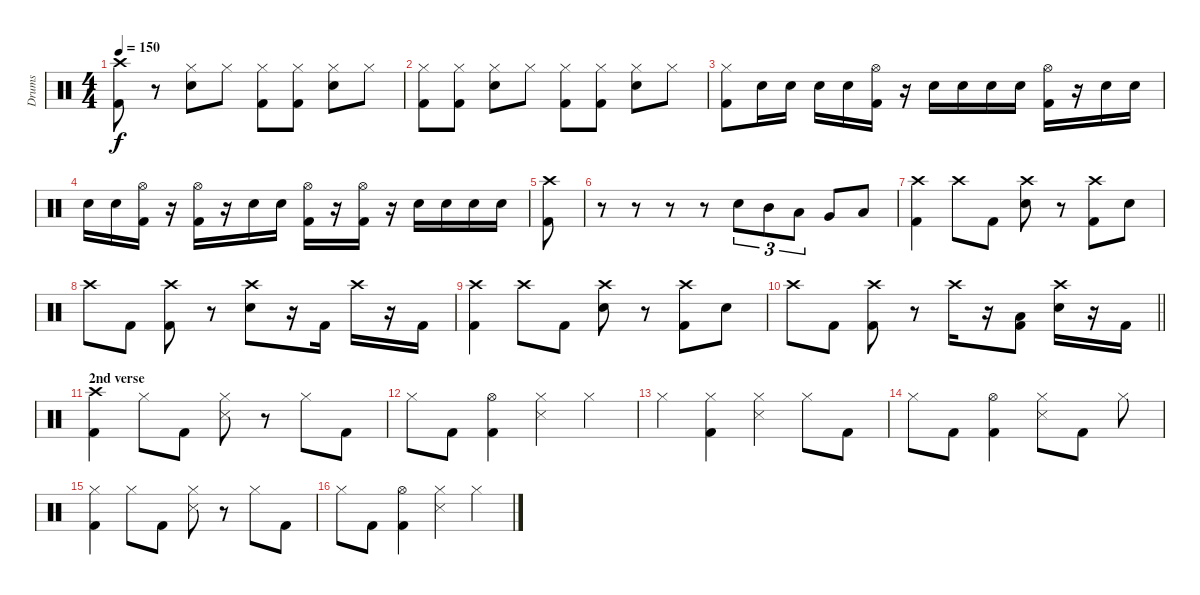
\track ("Drums" "Drums") {instrument percussion}
\staff {score}
\articulation defaults
\ts (4 4)
\tempo 150
\clef neutral
\ks c
("Crash high (hit)" "Kick (hit) 2").8{dy f} r.8 ("Hi-Hat (closed)" "Snare (hit) 2").8 "Hi-Hat (closed)".8 ("Hi-Hat (closed)" "Kick (hit) 2").8 ("Hi-Hat (closed)" "Kick (hit) 2").8 ("Hi-Hat (closed)" "Snare (hit) 2").8 "Hi-Hat (closed)".8 |
("Hi-Hat (closed)" "Kick (hit) 2").8 ("Hi-Hat (closed)" "Kick (hit) 2").8 ("Hi-Hat (closed)" "Snare (hit) 2").8 "Hi-Hat (closed)".8 ("Hi-Hat (closed)" "Kick (hit) 2").8 ("Hi-Hat (closed)" "Kick (hit) 2").8 ("Hi-Hat (closed)" "Snare (hit) 2").8 "Hi-Hat (closed)".8 |
("Hi-Hat (closed)" "Kick (hit) 2").8 "Snare (hit) 2".16 "Snare (hit) 2".16 "Snare (hit) 2".16 "Snare (hit) 2".16 ("Hi-Hat (open)" "Kick (hit) 2").16 r.16 "Snare (hit) 2".16 "Snare (hit) 2".16 "Snare (hit) 2".16 "Snare (hit) 2".16 ("Hi-Hat (open)" "Kick (hit) 2").16 r.16 "Snare (hit) 2".16 "Snare (hit) 2".16 |
"Snare (hit) 2".16 "Snare (hit) 2".16 ("Hi-Hat (open)" "Kick (hit) 2").16 r.16 ("Hi-Hat (open)" "Kick (hit) 2").16 r.16 "Snare (hit) 2".16 "Snare (hit) 2".16 ("Hi-Hat (open)" "Kick (hit) 2").16 r.16 ("Hi-Hat (open)" "Kick (hit) 2").16 r.16 "Snare (hit) 2".16 "Snare (hit) 2".16 "Snare (hit) 2".16 "Snare (hit) 2".16 |
("Crash high (hit)" "Kick (hit) 2").8 |
r.8 r.8 r.8 r.8 "Snare (hit) 2".8{tu (3 2)} "Mid Tom (hit)".8{tu (3 2)} "Low Tom (hit)".8{tu (3 2)} "Very Low Tom (hit)".8 "Low Tom (hit)".8 |
("Crash high (hit)" "Kick (hit) 2").4 "Crash high (hit)".8 "Kick (hit) 2".8 ("Crash high (hit)" "Snare (hit) 2").8 r.8 ("Crash high (hit)" "Kick (hit) 2").8 "Snare (hit) 2".8 |
"Crash high (hit)".8 "Kick (hit) 2".8 ("Crash high (hit)" "Kick (hit) 2").8 r.8 ("Crash high (hit)" "Snare (hit) 2").8 r.16 "Kick (hit) 2".16 "Crash high (hit)".16 r.16 "Kick (hit) 2".16 |
("Crash high (hit)" "Kick (hit) 2").4 "Crash high (hit)".8 "Kick (hit) 2".8 ("Crash high (hit)" "Snare (hit) 2").8 r.8 ("Crash high (hit)" "Kick (hit) 2").8 "Snare (hit) 2".8 |
\barLineRight lightlight "Crash high (hit)".8 "Kick (hit) 2".8
("Crash high (hit)" "Kick (hit) 2").8 r.8 "Crash high (hit)".16 r.16 ("Low Tom (hit)" "Kick (hit) 2").8 ("Crash high (hit)" "Snare (hit) 2").16 r.16 "Kick (hit) 2".16 |
\section ("" "2nd verse")
("Crash high (hit)" "Kick (hit) 2").4 "Hi-Hat (closed)".8 "Kick (hit) 2".8 ("Hi-Hat (closed)" "Snare (side stick) 3").8 r.8 "Hi-Hat (closed)".8 "Kick (hit) 2".8 |
"Hi-Hat (closed)".8 "Kick (hit) 2".8 ("Hi-Hat (open)" "Kick (hit) 2").4 ("Hi-Hat (closed)" "Snare (side stick) 3").4 "Hi-Hat (closed)".4 |
"Hi-Hat (closed)".4 ("Hi-Hat (closed)" "Kick (hit) 2").4 ("Hi-Hat (closed)" "Snare (side stick) 3").4 "Hi-Hat (closed)".8 "Kick (hit) 2".8 |
"Hi-Hat (closed)".8 "Kick (hit) 2".8 ("Hi-Hat (open)" "Kick (hit) 2").4 ("Hi-Hat (closed)" "Snare (side stick) 3").8 "Kick (hit) 2".8 "Hi-Hat (closed)".8 |
("Hi-Hat (closed)" "Kick (hit) 2").4 "Hi-Hat (closed)".8 "Kick (hit) 2".8 ("Hi-Hat (closed)" "Snare (side stick) 3").8 r.8 "Hi-Hat (closed)".8 "Kick (hit) 2".8 |
"Hi-Hat (closed)".8 "Kick (hit) 2".8 ("Hi-Hat (open)" "Kick (hit) 2").4 ("Hi-Hat (closed)" "Snare (side stick) 3").4 "Hi-Hat (closed)".4
